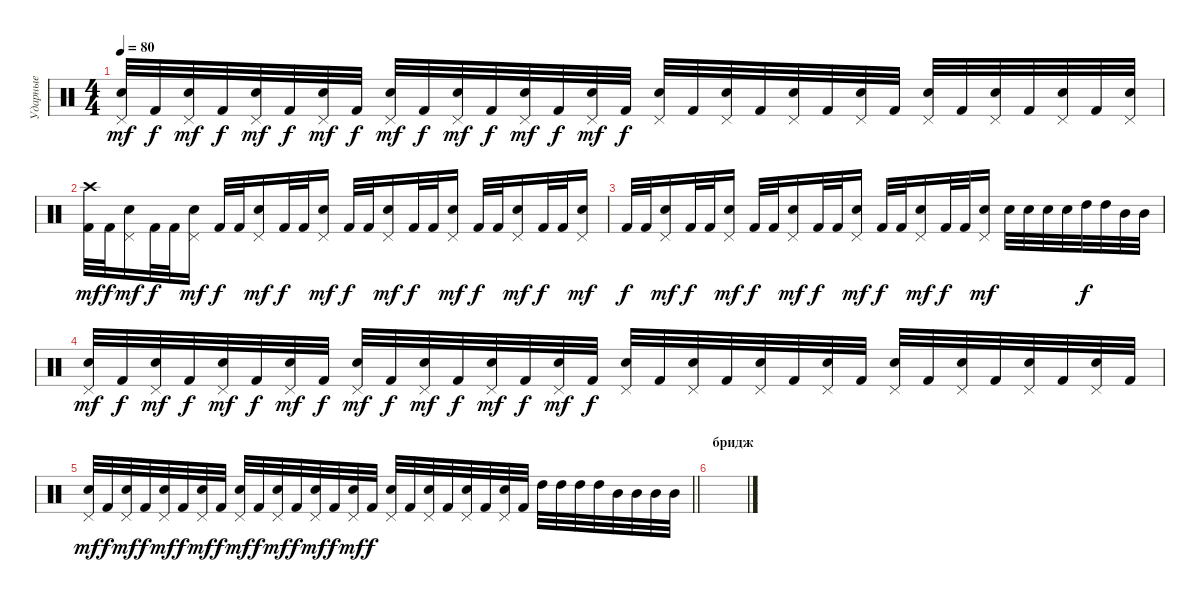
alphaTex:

\track ("Ударные" "Ударные") {instrument percussion}
\staff {score}
\articulation defaults
\ts (4 4)
\tempo 80
\clef neutral
\ks c
("Snare (hit) 2" "Pedal Hi-Hat (hit)").32{dy mf} "Kick (hit) 2".32{dy f} ("Snare (hit) 2" "Pedal Hi-Hat (hit)").32{dy mf} "Kick (hit) 2".32{dy f} ("Snare (hit) 2" "Pedal Hi-Hat (hit)").32{dy mf} "Kick (hit) 2".32{dy f} ("Snare (hit) 2" "Pedal Hi-Hat (hit)").32{dy mf} "Kick (hit) 2".32{dy f} ("Snare (hit) 2" "Pedal Hi-Hat (hit)").32{dy mf} "Kick (hit) 2".32{dy f} ("Snare (hit) 2" "Pedal Hi-Hat (hit)").32{dy mf} "Kick (hit) 2".32{dy f} ("Snare (hit) 2" "Pedal Hi-Hat (hit)").32{dy mf} "Kick (hit) 2".32{dy f} ("Snare (hit) 2" "Pedal Hi-Hat (hit)").32{dy mf} "Kick (hit) 2".32{dy f} ("Snare (hit) 2" "Pedal Hi-Hat (hit)").32 "Kick (hit) 2".32 ("Snare (hit) 2" "Pedal Hi-Hat (hit)").32 "Kick (hit) 2".32 ("Snare (hit) 2" "Pedal Hi-Hat (hit)").32 "Kick (hit) 2".32 ("Snare (hit) 2" "Pedal Hi-Hat (hit)").32 "Kick (hit) 2".32 ("Snare (hit) 2" "Pedal Hi-Hat (hit)").32 "Kick (hit) 2".32 ("Snare (hit) 2" "Pedal Hi-Hat (hit)").32 "Kick (hit) 2".32 ("Snare (hit) 2" "Pedal Hi-Hat (hit)").32 "Kick (hit) 2".32 ("Snare (hit) 2" "Pedal Hi-Hat (hit)").32 |
("Kick (hit) 2" "Crash high (hit)").32{dy mf} "Kick (hit) 2".32{dy f} ("Snare (hit) 2" "Pedal Hi-Hat (hit)").16{dy mf} "Kick (hit) 2".32{dy f} "Kick (hit) 2".32 ("Snare (hit) 2" "Pedal Hi-Hat (hit)").16{dy mf} "Kick (hit) 2".32{dy f} "Kick (hit) 2".32 ("Snare (hit) 2" "Pedal Hi-Hat (hit)").16{dy mf} "Kick (hit) 2".32{dy f} "Kick (hit) 2".32 ("Snare (hit) 2" "Pedal Hi-Hat (hit)").16{dy mf} "Kick (hit) 2".32{dy f} "Kick (hit) 2".32 ("Snare (hit) 2" "Pedal Hi-Hat (hit)").16{dy mf} "Kick (hit) 2".32{dy f} "Kick (hit) 2".32 ("Snare (hit) 2" "Pedal Hi-Hat (hit)").16{dy mf} "Kick (hit) 2".32{dy f} "Kick (hit) 2".32 ("Snare (hit) 2" "Pedal Hi-Hat (hit)").16{dy mf} "Kick (hit) 2".32{dy f} "Kick (hit) 2".32 ("Snare (hit) 2" "Pedal Hi-Hat (hit)").16{dy mf} |
"Kick (hit) 2".32{dy f} "Kick (hit) 2".32 ("Snare (hit) 2" "Pedal Hi-Hat (hit)").16{dy mf} "Kick (hit) 2".32{dy f} "Kick (hit) 2".32 ("Snare (hit) 2" "Pedal Hi-Hat (hit)").16{dy mf} "Kick (hit) 2".32{dy f} "Kick (hit) 2".32 ("Snare (hit) 2" "Pedal Hi-Hat (hit)").16{dy mf} "Kick (hit) 2".32{dy f} "Kick (hit) 2".32 ("Snare (hit) 2" "Pedal Hi-Hat (hit)").16{dy mf} "Kick (hit) 2".32{dy f} "Kick (hit) 2".32 ("Snare (hit) 2" "Pedal Hi-Hat (hit)").16{dy mf} "Kick (hit) 2".32{dy f} "Kick (hit) 2".32 ("Snare (hit) 2" "Pedal Hi-Hat (hit)").16{dy mf} "Snare (hit) 2".32 "Snare (hit) 2".32 "Snare (hit) 2".32 "Snare (hit) 2".32 "High Tom (hit)".32{dy f} "High Tom (hit)".32 "Mid Tom (hit)".32 "Mid Tom (hit)".32 |
("Snare (hit) 2" "Pedal Hi-Hat (hit)").32{dy mf} "Kick (hit) 2".32{dy f} ("Snare (hit) 2" "Pedal Hi-Hat (hit)").32{dy mf} "Kick (hit) 2".32{dy f} ("Snare (hit) 2" "Pedal Hi-Hat (hit)").32{dy mf} "Kick (hit) 2".32{dy f} ("Snare (hit) 2" "Pedal Hi-Hat (hit)").32{dy mf} "Kick (hit) 2".32{dy f} ("Snare (hit) 2" "Pedal Hi-Hat (hit)").32{dy mf} "Kick (hit) 2".32{dy f} ("Snare (hit) 2" "Pedal Hi-Hat (hit)").32{dy mf} "Kick (hit) 2".32{dy f} ("Snare (hit) 2" "Pedal Hi-Hat (hit)").32{dy mf} "Kick (hit) 2".32{dy f} ("Snare (hit) 2" "Pedal Hi-Hat (hit)").32{dy mf} "Kick (hit) 2".32{dy f} ("Snare (hit) 2" "Pedal Hi-Hat (hit)").32 "Kick (hit) 2".32 ("Snare (hit) 2" "Pedal Hi-Hat (hit)").32 "Kick (hit) 2".32 ("Snare (hit) 2" "Pedal Hi-Hat (hit)").32 "Kick (hit) 2".32 ("Snare (hit) 2" "Pedal Hi-Hat (hit)").32 "Kick (hit) 2".32 ("Snare (hit) 2" "Pedal Hi-Hat (hit)").32 "Kick (hit) 2".32 ("Snare (hit) 2" "Pedal Hi-Hat (hit)").32 "Kick (hit) 2".32 ("Snare (hit) 2" "Pedal Hi-Hat (hit)").32 "Kick (hit) 2".32 ("Snare (hit) 2" "Pedal Hi-Hat (hit)").32 "Kick (hit) 2".32 |
\barLineRight lightlight
("Snare (hit) 2" "Pedal Hi-Hat (hit)").32{dy mf} "Kick (hit) 2".32{dy f} ("Snare (hit) 2" "Pedal Hi-Hat (hit)").32{dy mf} "Kick (hit) 2".32{dy f} ("Snare (hit) 2" "Pedal Hi-Hat (hit)").32{dy mf} "Kick (hit) 2".32{dy f} ("Snare (hit) 2" "Pedal Hi-Hat (hit)").32{dy mf} "Kick (hit) 2".32{dy f} ("Snare (hit) 2" "Pedal Hi-Hat (hit)").32{dy mf} "Kick (hit) 2".32{dy f} ("Snare (hit) 2" "Pedal Hi-Hat (hit)").32{dy mf} "Kick (hit) 2".32{dy f} ("Snare (hit) 2" "Pedal Hi-Hat (hit)").32{dy mf} "Kick (hit) 2".32{dy f} ("Snare (hit) 2" "Pedal Hi-Hat (hit)").32{dy mf} "Kick (hit) 2".32{dy f} ("Snare (hit) 2" "Pedal Hi-Hat (hit)").32 "Kick (hit) 2".32 ("Snare (hit) 2" "Pedal Hi-Hat (hit)").32 "Kick (hit) 2".32 ("Snare (hit) 2" "Pedal Hi-Hat (hit)").32 "Kick (hit) 2".32 ("Snare (hit) 2" "Pedal Hi-Hat (hit)").32 "Kick (hit) 2".32 "High Tom (hit)".32 "High Tom (hit)".32 "High Tom (hit)".32 "High Tom (hit)".32 "Mid Tom (hit)".32 "Mid Tom (hit)".32 "Mid Tom (hit)".32 "Mid Tom (hit)".32 |
\section ("" "бридж")
